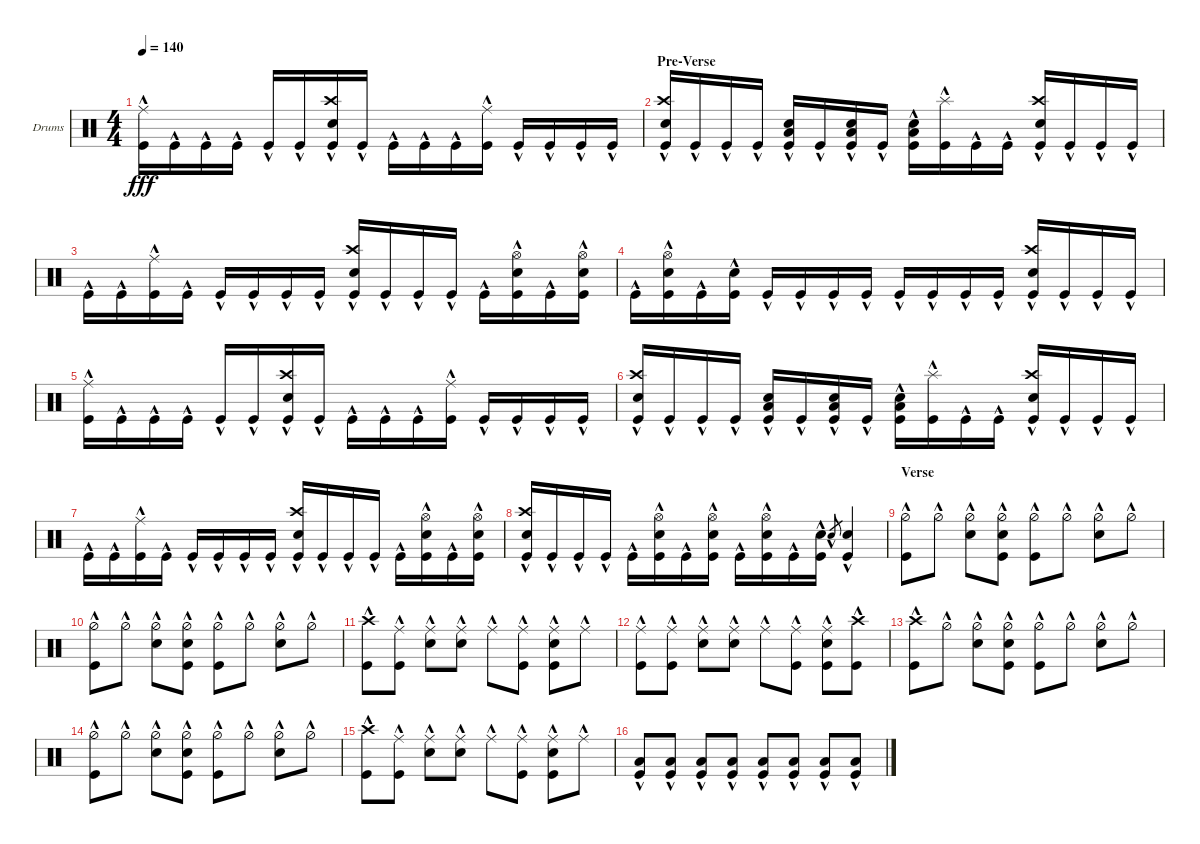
\bracketExtendMode groupsimilarinstruments
\firstSystemTrackNameOrientation horizontal
\otherSystemsTrackNameOrientation horizontal
\track ("BigMc" "Drums") {instrument percussion}
\staff {score}
\articulation defaults
\ts (4 4)
\tempo 140
\clef neutral
\ks c
("Kick (hit)"{hac} "Ride (middle)"{hac}).16{dy fff} "Kick (hit)"{hac}.16 "Kick (hit)"{hac}.16 "Kick (hit)"{hac}.16 "Kick (hit)"{hac}.16 "Kick (hit)"{hac}.16 ("Kick (hit)"{hac} "Crash high (hit)"{hac} "Snare (hit) 2"{hac}).16 "Kick (hit)"{hac}.16 "Kick (hit)"{hac}.16 "Kick (hit)"{hac}.16 "Kick (hit)"{hac}.16 ("Kick (hit)"{hac} "Ride (middle)"{hac}).16 "Kick (hit)"{hac}.16 "Kick (hit)"{hac}.16 "Kick (hit)"{hac}.16 "Kick (hit)"{hac}.16 |
\section ("" "Pre-Verse")
("Kick (hit)"{hac} "Crash high (hit)"{hac} "Snare (hit) 2"{hac}).16 "Kick (hit)"{hac}.16 "Kick (hit)"{hac}.16 "Kick (hit)"{hac}.16 ("Kick (hit)"{hac} "Low Tom (hit)"{hac} "Snare (hit) 2"{hac}).16 "Kick (hit)"{hac}.16 ("Kick (hit)"{hac} "Low Tom (hit)"{hac} "Snare (hit) 2"{hac}).16 "Kick (hit)"{hac}.16 ("Kick (hit)"{hac} "Low Tom (hit)"{hac} "Snare (hit) 2"{hac}).16 ("Kick (hit)"{hac} "Splash (hit)"{hac}).16 "Kick (hit)"{hac}.16 "Kick (hit)"{hac}.16 ("Kick (hit)"{hac} "Crash high (hit)"{hac} "Snare (hit) 2"{hac}).16 "Kick (hit)"{hac}.16 "Kick (hit)"{hac}.16 "Kick (hit)"{hac}.16 |
"Kick (hit)"{hac}.16 "Kick (hit)"{hac}.16 ("Kick (hit)"{hac} "Ride (middle)"{hac}).16 "Kick (hit)"{hac}.16 "Kick (hit)"{hac}.16 "Kick (hit)"{hac}.16 "Kick (hit)"{hac}.16 "Kick (hit)"{hac}.16 ("Kick (hit)"{hac} "Crash high (hit)"{hac} "Snare (hit) 2"{hac}).16 "Kick (hit)"{hac}.16 "Kick (hit)"{hac}.16 "Kick (hit)"{hac}.16 "Kick (hit)"{hac}.16 ("Kick (hit)"{hac} "Snare (hit) 2"{hac} "Hi-Hat (open)"{hac}).16 "Kick (hit)"{hac}.16 ("Kick (hit)"{hac} "Snare (hit) 2"{hac} "Hi-Hat (open)"{hac}).16 |
"Kick (hit)"{hac}.16 ("Kick (hit)"{hac} "Snare (hit) 2"{hac} "Hi-Hat (open)"{hac}).16 "Kick (hit)"{hac}.16 ("Kick (hit)"{hac} "Snare (hit) 2"{hac}).16 "Kick (hit)"{hac}.16 "Kick (hit)"{hac}.16 "Kick (hit)"{hac}.16 "Kick (hit)"{hac}.16 "Kick (hit)"{hac}.16 "Kick (hit)"{hac}.16 "Kick (hit)"{hac}.16 "Kick (hit)"{hac}.16 ("Kick (hit)"{hac} "Crash high (hit)"{hac} "Snare (hit) 2"{hac}).16 "Kick (hit)"{hac}.16 "Kick (hit)"{hac}.16 "Kick (hit)"{hac}.16 |
("Kick (hit)"{hac} "Ride (middle)"{hac}).16 "Kick (hit)"{hac}.16 "Kick (hit)"{hac}.16 "Kick (hit)"{hac}.16 "Kick (hit)"{hac}.16 "Kick (hit)"{hac}.16 ("Kick (hit)"{hac} "Crash high (hit)"{hac} "Snare (hit) 2"{hac}).16 "Kick (hit)"{hac}.16 "Kick (hit)"{hac}.16 "Kick (hit)"{hac}.16 "Kick (hit)"{hac}.16 ("Kick (hit)"{hac} "Ride (middle)"{hac}).16 "Kick (hit)"{hac}.16 "Kick (hit)"{hac}.16 "Kick (hit)"{hac}.16 "Kick (hit)"{hac}.16 |
("Kick (hit)"{hac} "Crash high (hit)"{hac} "Snare (hit) 2"{hac}).16 "Kick (hit)"{hac}.16 "Kick (hit)"{hac}.16 "Kick (hit)"{hac}.16 ("Kick (hit)"{hac} "Low Tom (hit)"{hac} "Snare (hit) 2"{hac}).16 "Kick (hit)"{hac}.16 ("Kick (hit)"{hac} "Low Tom (hit)"{hac} "Snare (hit) 2"{hac}).16 "Kick (hit)"{hac}.16 ("Kick (hit)"{hac} "Low Tom (hit)"{hac} "Snare (hit) 2"{hac}).16 ("Kick (hit)"{hac} "Splash (hit)"{hac}).16 "Kick (hit)"{hac}.16 "Kick (hit)"{hac}.16 ("Kick (hit)"{hac} "Crash high (hit)"{hac} "Snare (hit) 2"{hac}).16 "Kick (hit)"{hac}.16 "Kick (hit)"{hac}.16 "Kick (hit)"{hac}.16 |
"Kick (hit)"{hac}.16 "Kick (hit)"{hac}.16 ("Kick (hit)"{hac} "Ride (middle)"{hac}).16 "Kick (hit)"{hac}.16 "Kick (hit)"{hac}.16 "Kick (hit)"{hac}.16 "Kick (hit)"{hac}.16 "Kick (hit)"{hac}.16 ("Kick (hit)"{hac} "Crash high (hit)"{hac} "Snare (hit) 2"{hac}).16 "Kick (hit)"{hac}.16 "Kick (hit)"{hac}.16 "Kick (hit)"{hac}.16 "Kick (hit)"{hac}.16 ("Kick (hit)"{hac} "Snare (hit) 2"{hac} "Hi-Hat (open)"{hac}).16 "Kick (hit)"{hac}.16 ("Kick (hit)"{hac} "Snare (hit) 2"{hac} "Hi-Hat (open)"{hac}).16 |
("Kick (hit)"{hac} "Crash high (hit)"{hac} "Snare (hit) 2"{hac}).16 "Kick (hit)"{hac}.16 "Kick (hit)"{hac}.16 "Kick (hit)"{hac}.16 "Kick (hit)"{hac}.16 ("Kick (hit)"{hac} "Snare (hit) 2"{hac} "Hi-Hat (open)"{hac}).16 "Kick (hit)"{hac}.16 ("Kick (hit)"{hac} "Snare (hit) 2"{hac} "Hi-Hat (open)"{hac}).16 "Kick (hit)"{hac}.16 ("Kick (hit)"{hac} "Snare (hit) 2"{hac} "Hi-Hat (open)"{hac}).16 "Kick (hit)"{hac}.16 ("Kick (hit)"{hac} "Snare (hit) 2"{hac}).16 "Snare (hit) 2"{hac}.8{gr} ("Snare (hit) 2"{hac} "Kick (hit)"{hac}).4 |
\section ("" "Verse")
("Hi-Hat (half)"{hac} "Kick (hit)"{hac}).8 "Hi-Hat (half)"{hac}.8 ("Hi-Hat (half)"{hac} "Snare (hit) 2"{hac}).8 ("Hi-Hat (half)"{hac} "Kick (hit)"{hac} "Snare (hit) 2"{hac}).8 ("Hi-Hat (half)"{hac} "Kick (hit)"{hac}).8 "Hi-Hat (half)"{hac}.8 ("Hi-Hat (half)"{hac} "Snare (hit) 2"{hac}).8 "Hi-Hat (half)"{hac}.8 |
("Hi-Hat (half)"{hac} "Kick (hit)"{hac}).8 "Hi-Hat (half)"{hac}.8 ("Hi-Hat (half)"{hac} "Snare (hit) 2"{hac}).8 ("Hi-Hat (half)"{hac} "Kick (hit)"{hac} "Snare (hit) 2"{hac}).8 ("Hi-Hat (half)"{hac} "Kick (hit)"{hac}).8 "Hi-Hat (half)"{hac}.8 ("Hi-Hat (half)"{hac} "Snare (hit) 2"{hac}).8 "Hi-Hat (half)"{hac}.8 |
("Kick (hit)"{hac} "Crash high (hit)"{hac}).8 ("Ride (middle)"{hac} "Kick (hit)"{hac}).8 ("Ride (middle)"{hac} "Snare (hit) 2"{hac}).8 ("Ride (middle)"{hac} "Snare (hit) 2"{hac}).8 "Ride (middle)"{hac}.8 ("Ride (middle)"{hac} "Kick (hit)"{hac}).8 ("Ride (middle)"{hac} "Snare (hit) 2"{hac} "Kick (hit)"{hac}).8 "Ride (middle)"{hac}.8 |
("Kick (hit)"{hac} "Ride (middle)"{hac}).8 ("Ride (middle)"{hac} "Kick (hit)"{hac}).8 ("Ride (middle)"{hac} "Snare (hit) 2"{hac}).8 ("Ride (middle)"{hac} "Snare (hit) 2"{hac}).8 "Ride (middle)"{hac}.8 ("Ride (middle)"{hac} "Kick (hit)"{hac}).8 ("Ride (middle)"{hac} "Snare (hit) 2"{hac} "Kick (hit)"{hac}).8 ("Crash high (hit)"{hac} "Kick (hit)"{hac}).8 |
("Kick (hit)"{hac} "Crash high (hit)"{hac}).8 "Hi-Hat (half)"{hac}.8 ("Hi-Hat (half)"{hac} "Snare (hit) 2"{hac}).8 ("Hi-Hat (half)"{hac} "Kick (hit)"{hac} "Snare (hit) 2"{hac}).8 ("Hi-Hat (half)"{hac} "Kick (hit)"{hac}).8 "Hi-Hat (half)"{hac}.8 ("Hi-Hat (half)"{hac} "Snare (hit) 2"{hac}).8 "Hi-Hat (half)"{hac}.8 |
("Hi-Hat (half)"{hac} "Kick (hit)"{hac}).8 "Hi-Hat (half)"{hac}.8 ("Hi-Hat (half)"{hac} "Snare (hit) 2"{hac}).8 ("Hi-Hat (half)"{hac} "Kick (hit)"{hac} "Snare (hit) 2"{hac}).8 ("Hi-Hat (half)"{hac} "Kick (hit)"{hac}).8 "Hi-Hat (half)"{hac}.8 ("Hi-Hat (half)"{hac} "Snare (hit) 2"{hac}).8 "Hi-Hat (half)"{hac}.8 |
("Kick (hit)"{hac} "Crash high (hit)"{hac}).8 ("Ride (middle)"{hac} "Kick (hit)"{hac}).8 ("Ride (middle)"{hac} "Snare (hit) 2"{hac}).8 ("Ride (middle)"{hac} "Snare (hit) 2"{hac}).8 "Ride (middle)"{hac}.8 ("Ride (middle)"{hac} "Kick (hit)"{hac}).8 ("Ride (middle)"{hac} "Snare (hit) 2"{hac} "Kick (hit)"{hac}).8 "Ride (middle)"{hac}.8 |
("Low Tom (hit)"{hac} "Kick (hit)"{hac}).8 ("Low Tom (hit)"{hac} "Kick (hit)"{hac}).8 ("Low Tom (hit)"{hac} "Kick (hit)"{hac}).8 ("Low Tom (hit)"{hac} "Kick (hit)"{hac}).8 ("Low Tom (hit)"{hac} "Kick (hit)"{hac}).8 ("Low Tom (hit)"{hac} "Kick (hit)"{hac}).8 ("Low Tom (hit)"{hac} "Kick (hit)"{hac}).8 ("Low Tom (hit)"{hac} "Kick (hit)"{hac}).8
